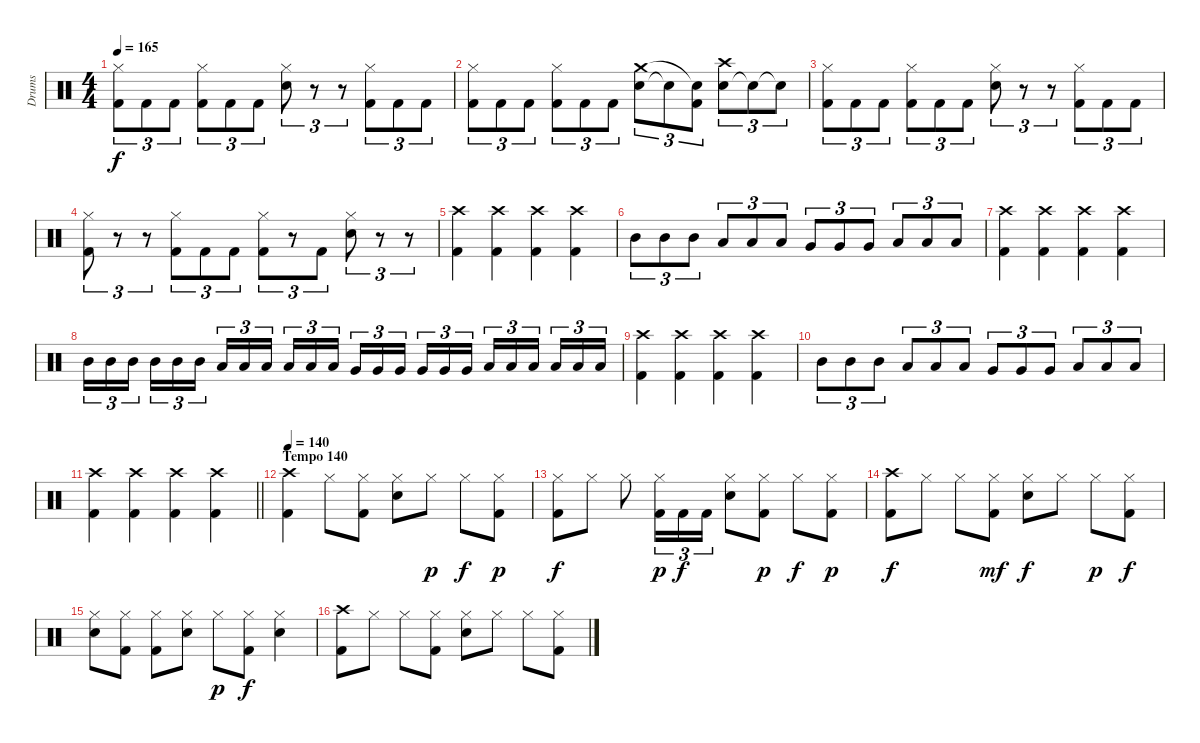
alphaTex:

\track ("Drums" "Drums") {instrument percussion}
\staff {score}
\articulation defaults
\ts (4 4)
\tempo 165
\clef neutral
\ks c
("Kick (hit) 2" "Hi-Hat (closed)").8{tu (3 2) dy f} "Kick (hit) 2".8{tu (3 2)} "Kick (hit) 2".8{tu (3 2)} ("Kick (hit) 2" "Hi-Hat (closed)").8{tu (3 2)} "Kick (hit) 2".8{tu (3 2)} "Kick (hit) 2".8{tu (3 2)} ("Snare (hit) 2" "Hi-Hat (closed)").8{tu (3 2)} r.8{tu (3 2)} r.8{tu (3 2)} ("Kick (hit) 2" "Hi-Hat (closed)").8{tu (3 2)} "Kick (hit) 2".8{tu (3 2)} "Kick (hit) 2".8{tu (3 2)} |
("Kick (hit) 2" "Hi-Hat (closed)").8{tu (3 2)} "Kick (hit) 2".8{tu (3 2)} "Kick (hit) 2".8{tu (3 2)} ("Kick (hit) 2" "Hi-Hat (closed)").8{tu (3 2)} "Kick (hit) 2".8{tu (3 2)} "Kick (hit) 2".8{tu (3 2)} ("Snare (hit) 2" "Crash medium (hit)").8{tu (3 2)} "Snare (hit)"{t}.8{tu (3 2)} ("Kick (hit) 2" "Snare (hit)"{t}).8{tu (3 2)} ("Snare (hit) 2" "Crash high (hit)").8{tu (3 2)} "Snare (hit)"{t}.8{tu (3 2)} "Snare (hit)"{t}.8{tu (3 2)} |
("Kick (hit) 2" "Hi-Hat (closed)").8{tu (3 2)} "Kick (hit) 2".8{tu (3 2)} "Kick (hit) 2".8{tu (3 2)} ("Kick (hit) 2" "Hi-Hat (closed)").8{tu (3 2)} "Kick (hit) 2".8{tu (3 2)} "Kick (hit) 2".8{tu (3 2)} ("Snare (hit) 2" "Hi-Hat (closed)").8{tu (3 2)} r.8{tu (3 2)} r.8{tu (3 2)} ("Kick (hit) 2" "Hi-Hat (closed)").8{tu (3 2)} "Kick (hit) 2".8{tu (3 2)} "Kick (hit) 2".8{tu (3 2)} |
("Kick (hit) 2" "Hi-Hat (closed)").8{tu (3 2)} r.8{tu (3 2)} r.8{tu (3 2)} ("Kick (hit) 2" "Hi-Hat (closed)").8{tu (3 2)} "Kick (hit) 2".8{tu (3 2)} "Kick (hit) 2".8{tu (3 2)} ("Kick (hit) 2" "Hi-Hat (closed)").8{tu (3 2)} r.8{tu (3 2)} "Kick (hit) 2".8{tu (3 2)} ("Snare (hit) 2" "Hi-Hat (closed)").8{tu (3 2)} r.8{tu (3 2)} r.8{tu (3 2)} |
("Kick (hit) 2" "Crash high (hit)").4 ("Kick (hit) 2" "Crash high (hit)").4 ("Kick (hit) 2" "Crash high (hit)").4 ("Kick (hit) 2" "Crash high (hit)").4 |
"Mid Tom (hit)".8{tu (3 2)} "Mid Tom (hit)".8{tu (3 2)} "Mid Tom (hit)".8{tu (3 2)} "Low Tom (hit)".8{tu (3 2)} "Low Tom (hit)".8{tu (3 2)} "Low Tom (hit)".8{tu (3 2)} "Very Low Tom (hit)".8{tu (3 2)} "Very Low Tom (hit)".8{tu (3 2)} "Very Low Tom (hit)".8{tu (3 2)} "Low Floor Tom (hit)".8{tu (3 2)} "Low Floor Tom (hit)".8{tu (3 2)} "Low Floor Tom (hit)".8{tu (3 2)} |
("Kick (hit) 2" "Crash high (hit)").4 ("Kick (hit) 2" "Crash high (hit)").4 ("Kick (hit) 2" "Crash high (hit)").4 ("Kick (hit) 2" "Crash high (hit)").4 |
"Mid Tom (hit)".16{tu (3 2)} "Mid Tom (hit)".16{tu (3 2)} "Mid Tom (hit)".16{tu (3 2)} "Mid Tom (hit)".16{tu (3 2)} "Mid Tom (hit)".16{tu (3 2)} "Mid Tom (hit)".16{tu (3 2)} "Low Tom (hit)".16{tu (3 2)} "Low Tom (hit)".16{tu (3 2)} "Low Tom (hit)".16{tu (3 2)} "Low Tom (hit)".16{tu (3 2)} "Low Tom (hit)".16{tu (3 2)} "Low Tom (hit)".16{tu (3 2)} "Very Low Tom (hit)".16{tu (3 2)} "Very Low Tom (hit)".16{tu (3 2)} "Very Low Tom (hit)".16{tu (3 2)} "Very Low Tom (hit)".16{tu (3 2)} "Very Low Tom (hit)".16{tu (3 2)} "Very Low Tom (hit)".16{tu (3 2)} "Low Floor Tom (hit)".16{tu (3 2)} "Low Floor Tom (hit)".16{tu (3 2)} "Low Floor Tom (hit)".16{tu (3 2)} "Low Floor Tom (hit)".16{tu (3 2)} "Low Floor Tom (hit)".16{tu (3 2)} "Low Floor Tom (hit)".16{tu (3 2)} |
("Kick (hit) 2" "Crash high (hit)").4 ("Kick (hit) 2" "Crash high (hit)").4 ("Kick (hit) 2" "Crash high (hit)").4 ("Kick (hit) 2" "Crash high (hit)").4 |
"Mid Tom (hit)".8{tu (3 2)} "Mid Tom (hit)".8{tu (3 2)} "Mid Tom (hit)".8{tu (3 2)} "Low Tom (hit)".8{tu (3 2)} "Low Tom (hit)".8{tu (3 2)} "Low Tom (hit)".8{tu (3 2)} "Very Low Tom (hit)".8{tu (3 2)} "Very Low Tom (hit)".8{tu (3 2)} "Very Low Tom (hit)".8{tu (3 2)} "Low Floor Tom (hit)".8{tu (3 2)} "Low Floor Tom (hit)".8{tu (3 2)} "Low Floor Tom (hit)".8{tu (3 2)} |
\barLineRight lightlight
("Kick (hit) 2" "Crash high (hit)").4 ("Kick (hit) 2" "Crash high (hit)").4 ("Kick (hit) 2" "Crash high (hit)").4 ("Kick (hit) 2" "Crash high (hit)").4 |
\section ("" "Tempo 140")
\tempo 140
("Kick (hit) 2" "Crash high (hit)").4 "Hi-Hat (closed)".8 ("Kick (hit) 2" "Hi-Hat (closed)").8 ("Snare (hit) 2" "Hi-Hat (closed)").8 "Hi-Hat (closed)".8{dy p} "Hi-Hat (closed)".8{dy f} ("Kick (hit) 2" "Hi-Hat (closed)").8{dy p} |
("Kick (hit) 2" "Hi-Hat (closed)").8{dy f} "Hi-Hat (closed)".8 "Hi-Hat (closed)".8 ("Kick (hit) 2" "Hi-Hat (closed)").16{tu (3 2) dy p} "Kick (hit) 2".16{tu (3 2) dy f} "Kick (hit) 2".16{tu (3 2)} ("Snare (hit) 2" "Hi-Hat (closed)").8 ("Kick (hit) 2" "Hi-Hat (closed)").8{dy p} "Hi-Hat (closed)".8{dy f} ("Kick (hit) 2" "Hi-Hat (closed)").8{dy p} |
("Kick (hit) 2" "Crash high (hit)").8{dy f} "Hi-Hat (closed)".8 "Hi-Hat (closed)".8 ("Kick (hit) 2" "Hi-Hat (closed)").8{dy mf} ("Snare (hit) 2" "Hi-Hat (closed)").8{dy f} "Hi-Hat (closed)".8 "Hi-Hat (closed)".8{dy p} ("Kick (hit) 2" "Hi-Hat (closed)").8{dy f} |
("Snare (hit) 2" "Hi-Hat (closed)").8 ("Kick (hit) 2" "Hi-Hat (closed)").8 ("Kick (hit) 2" "Hi-Hat (closed)").8 ("Snare (hit) 2" "Hi-Hat (closed)").8 "Hi-Hat (closed)".8{dy p} ("Kick (hit) 2" "Hi-Hat (closed)").8{dy f} ("Snare (hit) 2" "Hi-Hat (closed)").4 |
("Kick (hit) 2" "Crash high (hit)").8 "Hi-Hat (closed)".8 "Hi-Hat (closed)".8 ("Kick (hit) 2" "Hi-Hat (closed)").8 ("Snare (hit) 2" "Hi-Hat (closed)").8 "Hi-Hat (closed)".8 "Hi-Hat (closed)".8 ("Kick (hit) 2" "Hi-Hat (closed)").8
